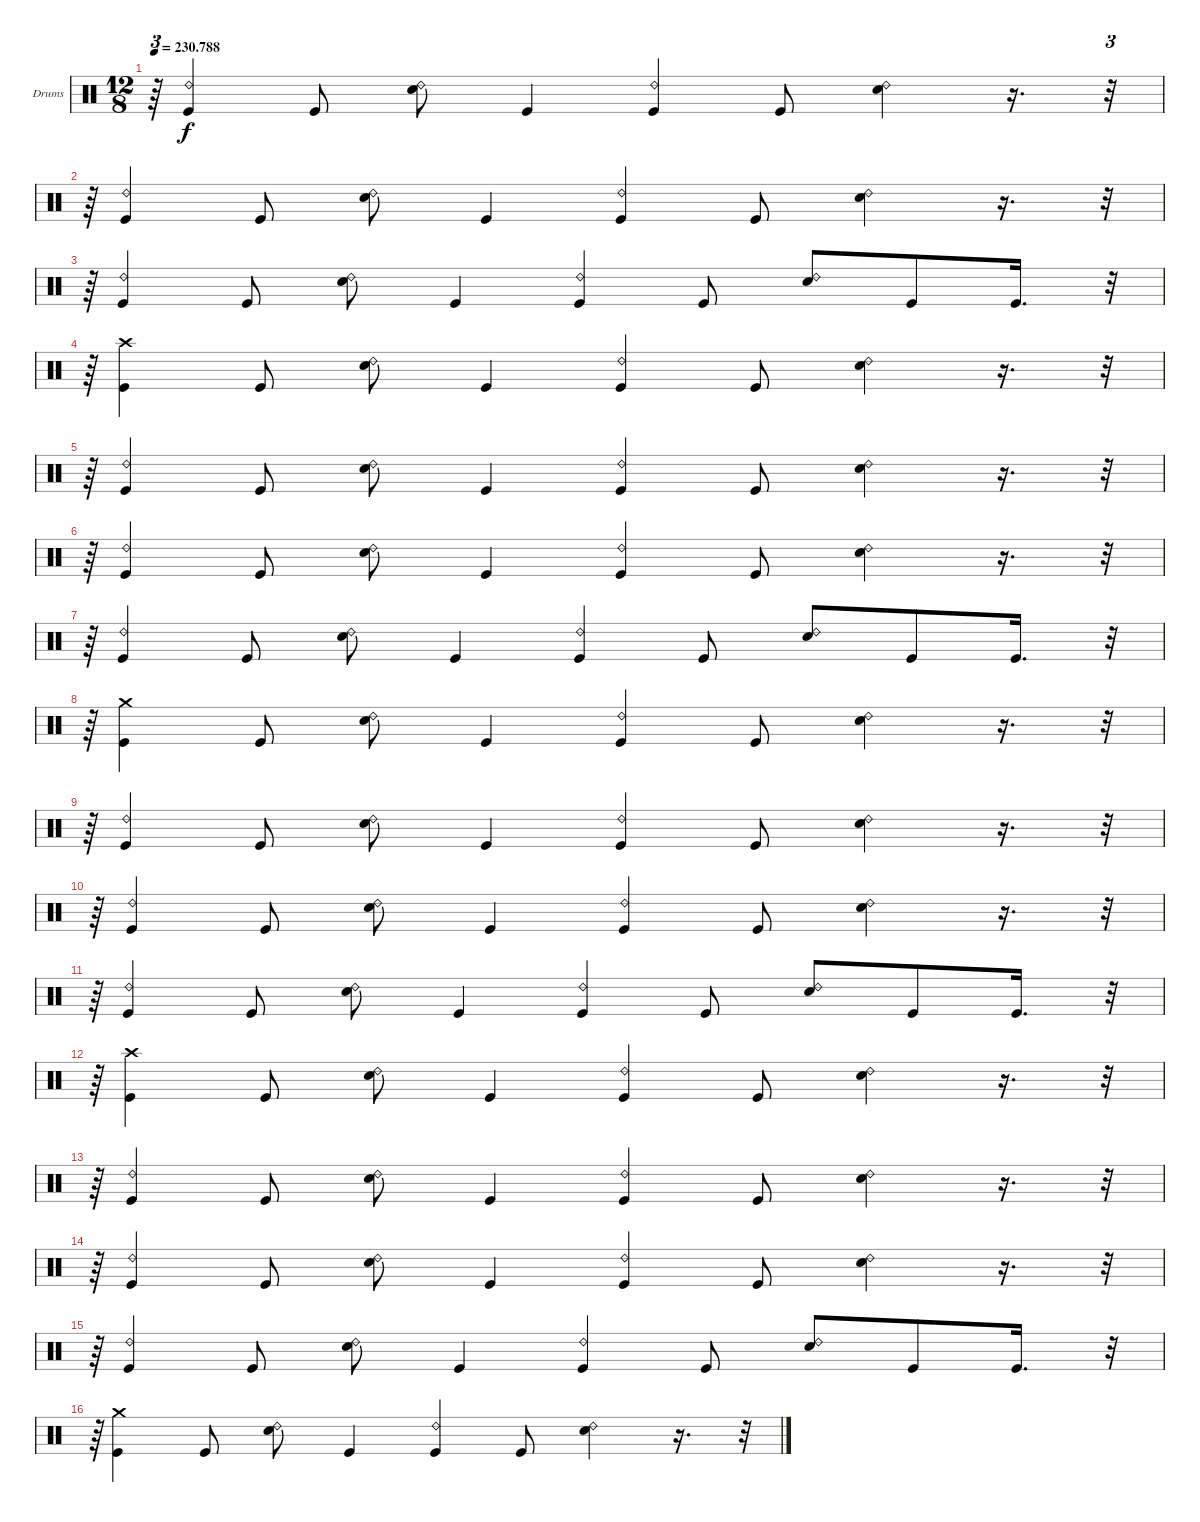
\bracketExtendMode groupsimilarinstruments
\firstSystemTrackNameOrientation horizontal
\otherSystemsTrackNameOrientation horizontal
\track ("Ударные" "Drums") {instrument percussion}
\staff {score}
\articulation defaults
\ts (12 8)
\tempo
230.788
\accidentals auto
\clef neutral
\ottava regular
\simile none
\ks c
r.64{tu (3 2) dy f} ("Ride (bell) 2" "Kick (hit)").4 "Kick (hit)".8 ("Ride (bell) 2" "Snare (hit) 2").8 "Kick (hit)".4 ("Ride (bell) 2" "Kick (hit)").4 "Kick (hit)".8 ("Ride (bell) 2" "Snare (hit) 2").4 r.16{d} r.32{tu (3 2)} |
r.64{tu (3 2)} ("Kick (hit)" "Ride (bell) 2").4 "Kick (hit)".8 ("Ride (bell) 2" "Snare (hit) 2").8 "Kick (hit)".4 ("Kick (hit)" "Ride (bell) 2").4 "Kick (hit)".8 ("Ride (bell) 2" "Snare (hit) 2").4 r.16{d} r.32{tu (3 2)} |
r.64{tu (3 2)} ("Kick (hit)" "Ride (bell) 2").4 "Kick (hit)".8 ("Ride (bell) 2" "Snare (hit) 2").8 "Kick (hit)".4 ("Ride (bell) 2" "Kick (hit)").4 "Kick (hit)".8 ("Ride (bell) 2" "Snare (hit) 2").8 "Kick (hit)".8 "Kick (hit)".16{d} r.32{tu (3 2)} |
r.64{tu (3 2)} ("Crash high (hit)" "Kick (hit)").4 "Kick (hit)".8 ("Ride (bell) 2" "Snare (hit) 2").8 "Kick (hit)".4 ("Ride (bell) 2" "Kick (hit)").4 "Kick (hit)".8 ("Ride (bell) 2" "Snare (hit) 2").4 r.16{d} r.32{tu (3 2)} |
r.64{tu (3 2)} ("Ride (bell) 2" "Kick (hit)").4 "Kick (hit)".8 ("Ride (bell) 2" "Snare (hit) 2").8 "Kick (hit)".4 ("Ride (bell) 2" "Kick (hit)").4 "Kick (hit)".8 ("Ride (bell) 2" "Snare (hit) 2").4 r.16{d} r.32{tu (3 2)} |
r.64{tu (3 2)} ("Kick (hit)" "Ride (bell) 2").4 "Kick (hit)".8 ("Ride (bell) 2" "Snare (hit) 2").8 "Kick (hit)".4 ("Kick (hit)" "Ride (bell) 2").4 "Kick (hit)".8 ("Ride (bell) 2" "Snare (hit) 2").4 r.16{d} r.32{tu (3 2)} |
r.64{tu (3 2)} ("Kick (hit)" "Ride (bell) 2").4 "Kick (hit)".8 ("Ride (bell) 2" "Snare (hit) 2").8 "Kick (hit)".4 ("Ride (bell) 2" "Kick (hit)").4 "Kick (hit)".8 ("Ride (bell) 2" "Snare (hit) 2").8 "Kick (hit)".8 "Kick (hit)".16{d} r.32{tu (3 2)} |
r.64{tu (3 2)} ("Crash medium (hit)" "Kick (hit)").4 "Kick (hit)".8 ("Ride (bell) 2" "Snare (hit) 2").8 "Kick (hit)".4 ("Ride (bell) 2" "Kick (hit)").4 "Kick (hit)".8 ("Ride (bell) 2" "Snare (hit) 2").4 r.16{d} r.32{tu (3 2)} |
r.64{tu (3 2)} ("Ride (bell) 2" "Kick (hit)").4 "Kick (hit)".8 ("Ride (bell) 2" "Snare (hit) 2").8 "Kick (hit)".4 ("Ride (bell) 2" "Kick (hit)").4 "Kick (hit)".8 ("Ride (bell) 2" "Snare (hit) 2").4 r.16{d} r.32{tu (3 2)} |
r.64{tu (3 2)} ("Kick (hit)" "Ride (bell) 2").4 "Kick (hit)".8 ("Ride (bell) 2" "Snare (hit) 2").8 "Kick (hit)".4 ("Kick (hit)" "Ride (bell) 2").4 "Kick (hit)".8 ("Ride (bell) 2" "Snare (hit) 2").4 r.16{d} r.32{tu (3 2)} |
r.64{tu (3 2)} ("Kick (hit)" "Ride (bell) 2").4 "Kick (hit)".8 ("Ride (bell) 2" "Snare (hit) 2").8 "Kick (hit)".4 ("Ride (bell) 2" "Kick (hit)").4 "Kick (hit)".8 ("Ride (bell) 2" "Snare (hit) 2").8 "Kick (hit)".8 "Kick (hit)".16{d} r.32{tu (3 2)} |
r.64{tu (3 2)} ("Crash high (hit)" "Kick (hit)").4 "Kick (hit)".8 ("Ride (bell) 2" "Snare (hit) 2").8 "Kick (hit)".4 ("Ride (bell) 2" "Kick (hit)").4 "Kick (hit)".8 ("Ride (bell) 2" "Snare (hit) 2").4 r.16{d} r.32{tu (3 2)} |
r.64{tu (3 2)} ("Ride (bell) 2" "Kick (hit)").4 "Kick (hit)".8 ("Ride (bell) 2" "Snare (hit) 2").8 "Kick (hit)".4 ("Ride (bell) 2" "Kick (hit)").4 "Kick (hit)".8 ("Ride (bell) 2" "Snare (hit) 2").4 r.16{d} r.32{tu (3 2)} |
r.64{tu (3 2)} ("Kick (hit)" "Ride (bell) 2").4 "Kick (hit)".8 ("Ride (bell) 2" "Snare (hit) 2").8 "Kick (hit)".4 ("Kick (hit)" "Ride (bell) 2").4 "Kick (hit)".8 ("Ride (bell) 2" "Snare (hit) 2").4 r.16{d} r.32{tu (3 2)} |
r.64{tu (3 2)} ("Kick (hit)" "Ride (bell) 2").4 "Kick (hit)".8 ("Ride (bell) 2" "Snare (hit) 2").8 "Kick (hit)".4 ("Ride (bell) 2" "Kick (hit)").4 "Kick (hit)".8 ("Ride (bell) 2" "Snare (hit) 2").8 "Kick (hit)".8 "Kick (hit)".16{d} r.32{tu (3 2)} |
r.64{tu (3 2)} ("Crash medium (hit)" "Kick (hit)").4 "Kick (hit)".8 ("Ride (bell) 2" "Snare (hit) 2").8 "Kick (hit)".4 ("Ride (bell) 2" "Kick (hit)").4 "Kick (hit)".8 ("Ride (bell) 2" "Snare (hit) 2").4 r.16{d} r.32{tu (3 2)}
